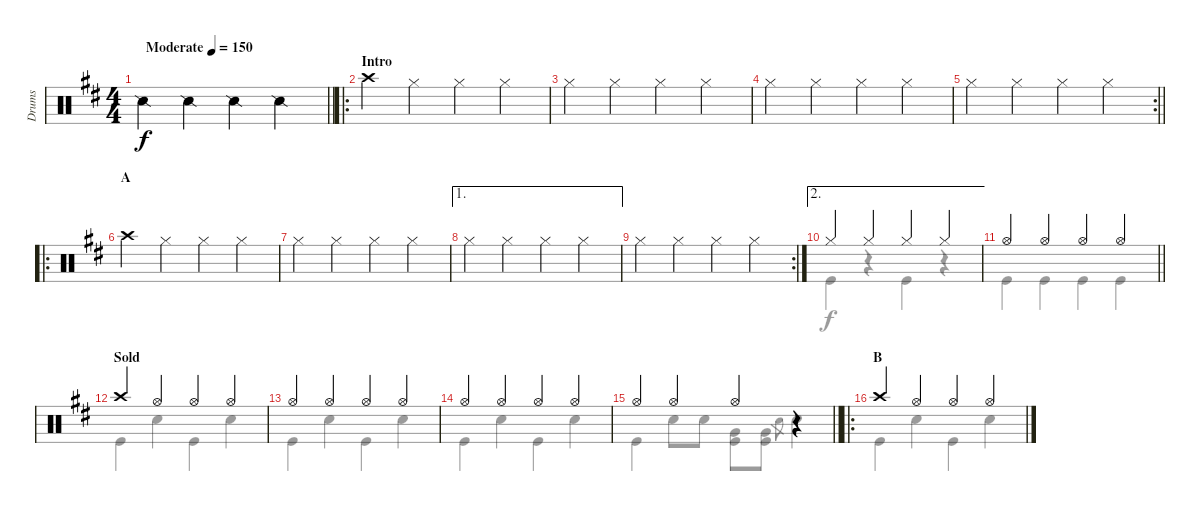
\track ("Drums" "Drums") {instrument percussion}
\staff {score}
\articulation defaults
\voice
\ts (4 4)
\tempo (150 "Moderate")
\clef neutral
\barLineRight lightlight
\ks bminor "Snare (side stick) 2".4{dy f} "Snare (side stick) 2".4 "Snare (side stick) 2".4 "Snare (side stick) 2".4
|
\ro
\section ("" "Intro")
"Crash high (hit)".4 "Hi-Hat (closed)".4 "Hi-Hat (closed)".4 "Hi-Hat (closed)".4 |
"Hi-Hat (closed)".4 "Hi-Hat (closed)".4 "Hi-Hat (closed)".4 "Hi-Hat (closed)".4 |
"Hi-Hat (closed)".4 "Hi-Hat (closed)".4 "Hi-Hat (closed)".4 "Hi-Hat (closed)".4 |
\rc 2
\barLineRight lightlight "Hi-Hat (closed)".4 "Hi-Hat (closed)".4 "Hi-Hat (closed)".4 "Hi-Hat (closed)".4
|
\ro
\section ("" "A")
"Crash high (hit)".4 "Hi-Hat (closed)".4 "Hi-Hat (closed)".4 "Hi-Hat (closed)".4 |
"Hi-Hat (closed)".4 "Hi-Hat (closed)".4 "Hi-Hat (closed)".4 "Hi-Hat (closed)".4 |
\ae 1 "Hi-Hat (closed)".4 "Hi-Hat (closed)".4 "Hi-Hat (closed)".4 "Hi-Hat (closed)".4
|
\rc 2 "Hi-Hat (closed)".4 "Hi-Hat (closed)".4 "Hi-Hat (closed)".4 "Hi-Hat (closed)".4
|
\ae 2 "Hi-Hat (closed)".4 "Hi-Hat (closed)".4 "Hi-Hat (closed)".4 "Hi-Hat (closed)".4
|
\barLineRight lightlight "Hi-Hat (open)".4 "Hi-Hat (open)".4 "Hi-Hat (open)".4 "Hi-Hat (open)".4
|
\section ("" "Sold")
"Crash high (hit)".4 "Hi-Hat (open)".4 "Hi-Hat (open)".4 "Hi-Hat (open)".4 |
"Hi-Hat (open)".4 "Hi-Hat (open)".4 "Hi-Hat (open)".4 "Hi-Hat (open)".4 |
"Hi-Hat (open)".4 "Hi-Hat (open)".4 "Hi-Hat (open)".4 "Hi-Hat (open)".4 |
\barLineRight lightlight "Hi-Hat (open)".4 "Hi-Hat (open)".4 "Hi-Hat (open)".4
r.4 |
\ro
\section ("" "B")
"Crash high (hit)".4 "Hi-Hat (open)".4 "Hi-Hat (open)".4 "Hi-Hat (open)".4
\voice
\clef neutral
\ottava regular
\simile none
\barLineRight lightlight
\ks bminor
|
|
|
|
\barLineRight lightlight
|
|
|
|
|
"Kick (hit)".4 r.4 "Kick (hit)".4 r.4 |
\barLineRight lightlight "Kick (hit)".4 "Kick (hit)".4 "Kick (hit)".4 "Kick (hit)".4
|
"Kick (hit)".4 "Snare (hit) 2".4 "Kick (hit)".4 "Snare (hit) 2".4 |
"Kick (hit)".4 "Snare (hit) 2".4 "Kick (hit)".4 "Snare (hit) 2".4 |
"Kick (hit)".4 "Snare (hit) 2".4 "Kick (hit)".4 "Snare (hit) 2".4 |
\barLineRight lightlight "Kick (hit)".4 "Snare (hit) 2".8 "Snare (hit) 2".8
("Very Low Tom (hit)" "Kick (hit)").8 ("Very Low Tom (hit)" "Kick (hit)").8 "Snare (hit) 2".8{gr} "Snare (hit) 2".4 |
"Kick (hit)".4 "Snare (hit) 2".4 "Kick (hit)".4 "Snare (hit) 2".4
